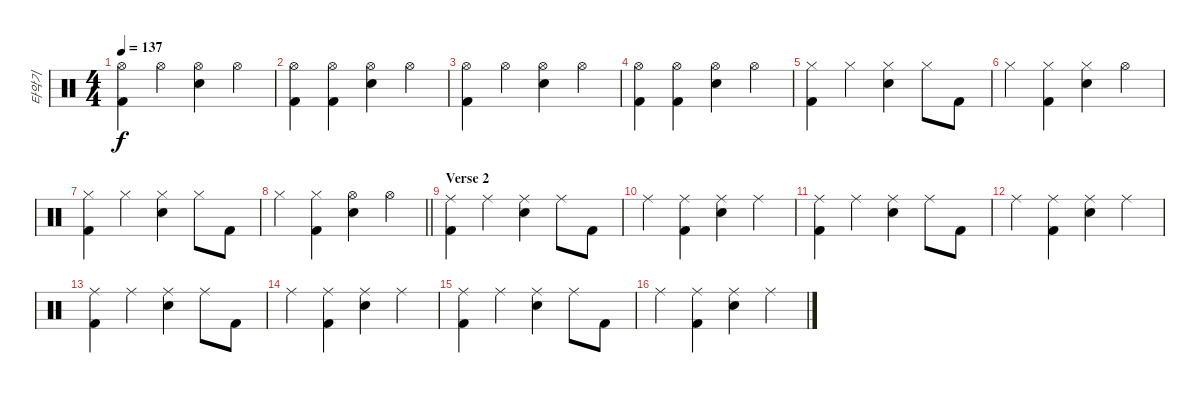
\track ("타악기" "타악기") {instrument percussion}
\staff {score}
\articulation defaults
\ts (4 4)
\tempo 137
\clef neutral
\ks c
("Hi-Hat (open)" "Kick (hit) 2").4{dy f} "Hi-Hat (open)".4 ("Hi-Hat (open)" "Electric Snare (hit)").4 "Hi-Hat (open)".4 |
("Hi-Hat (open)" "Kick (hit) 2").4 ("Hi-Hat (open)" "Kick (hit) 2").4 ("Hi-Hat (open)" "Electric Snare (hit)").4 "Hi-Hat (open)".4 |
("Hi-Hat (open)" "Kick (hit) 2").4 "Hi-Hat (open)".4 ("Hi-Hat (open)" "Electric Snare (hit)").4 "Hi-Hat (open)".4 |
("Hi-Hat (open)" "Kick (hit) 2").4 ("Hi-Hat (open)" "Kick (hit) 2").4 ("Hi-Hat (open)" "Electric Snare (hit)").4 "Hi-Hat (open)".4 |
("Hi-Hat (closed)" "Kick (hit) 2").4 "Hi-Hat (closed)".4 ("Hi-Hat (closed)" "Electric Snare (hit)").4 "Hi-Hat (closed)".8 "Kick (hit) 2".8 |
"Hi-Hat (closed)".4 ("Hi-Hat (closed)" "Kick (hit) 2").4 ("Hi-Hat (closed)" "Electric Snare (hit)").4 "Hi-Hat (open)".4 |
("Hi-Hat (closed)" "Kick (hit) 2").4 "Hi-Hat (closed)".4 ("Hi-Hat (closed)" "Electric Snare (hit)").4 "Hi-Hat (closed)".8 "Kick (hit) 2".8 |
\barLineRight lightlight "Hi-Hat (closed)".4
("Hi-Hat (closed)" "Kick (hit) 2").4 ("Hi-Hat (open)" "Electric Snare (hit)").4 "Hi-Hat (open)".4 |
\section ("" "Verse 2")
("Ride (middle)" "Kick (hit) 2").4 "Ride (middle)".4 ("Ride (middle)" "Electric Snare (hit)").4 "Ride (middle)".8 "Kick (hit) 2".8 |
"Ride (middle)".4 ("Ride (middle)" "Kick (hit) 2").4 ("Ride (middle)" "Electric Snare (hit)").4 "Ride (middle)".4 |
("Ride (middle)" "Kick (hit) 2").4 "Ride (middle)".4 ("Ride (middle)" "Electric Snare (hit)").4 "Ride (middle)".8 "Kick (hit) 2".8 |
"Ride (middle)".4 ("Ride (middle)" "Kick (hit) 2").4 ("Ride (middle)" "Electric Snare (hit)").4 "Ride (middle)".4 |
("Ride (middle)" "Kick (hit) 2").4 "Ride (middle)".4 ("Ride (middle)" "Electric Snare (hit)").4 "Ride (middle)".8 "Kick (hit) 2".8 |
"Ride (middle)".4 ("Ride (middle)" "Kick (hit) 2").4 ("Ride (middle)" "Electric Snare (hit)").4 "Ride (middle)".4 |
("Ride (middle)" "Kick (hit) 2").4 "Ride (middle)".4 ("Ride (middle)" "Electric Snare (hit)").4 "Ride (middle)".8 "Kick (hit) 2".8 |
"Ride (middle)".4 ("Ride (middle)" "Kick (hit) 2").4 ("Ride (middle)" "Electric Snare (hit)").4 "Ride (middle)".4
